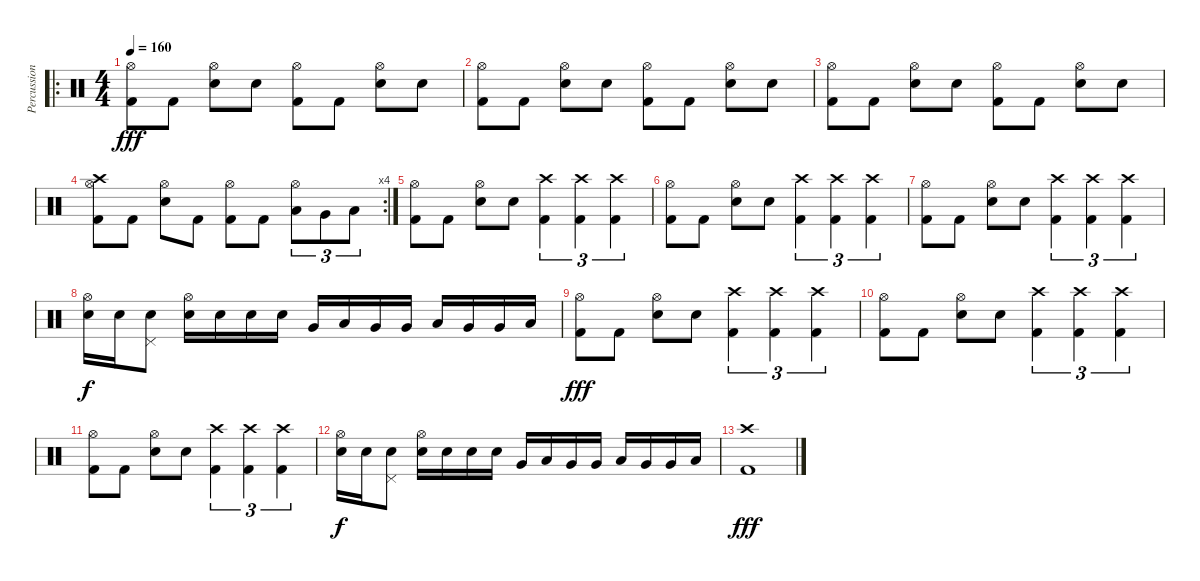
\track ("Percussion" "Percussion") {instrument percussion}
\staff {score}
\articulation defaults
\ro
\ts (4 4)
\tempo 160
\clef neutral
\ks c
("Kick (hit) 2" "Hi-Hat (open)").8{dy fff} "Kick (hit) 2".8 ("Snare (hit) 2" "Hi-Hat (open)").8 "Snare (hit) 2".8 ("Kick (hit) 2" "Hi-Hat (open)").8 "Kick (hit) 2".8 ("Snare (hit) 2" "Hi-Hat (open)").8 "Snare (hit) 2".8 |
("Kick (hit) 2" "Hi-Hat (open)").8 "Kick (hit) 2".8 ("Snare (hit) 2" "Hi-Hat (open)").8 "Snare (hit) 2".8 ("Kick (hit) 2" "Hi-Hat (open)").8 "Kick (hit) 2".8 ("Snare (hit) 2" "Hi-Hat (open)").8 "Snare (hit) 2".8 |
("Kick (hit) 2" "Hi-Hat (open)").8 "Kick (hit) 2".8 ("Snare (hit) 2" "Hi-Hat (open)").8 "Snare (hit) 2".8 ("Kick (hit) 2" "Hi-Hat (open)").8 "Kick (hit) 2".8 ("Snare (hit) 2" "Hi-Hat (open)").8 "Snare (hit) 2".8 |
\rc 4
("Kick (hit) 2" "Hi-Hat (open)" "Crash high (hit)").8 "Kick (hit) 2".8 ("Snare (hit) 2" "Hi-Hat (open)").8 "Kick (hit) 2".8 ("Kick (hit) 2" "Hi-Hat (open)").8 "Kick (hit) 2".8 ("Low Tom (hit)" "Hi-Hat (open)").8{tu (3 2)} "Very Low Tom (hit)".8{tu (3 2)} "Low Floor Tom (hit)".8{tu (3 2)} |
("Kick (hit) 2" "Hi-Hat (open)").8 "Kick (hit) 2".8 ("Snare (hit) 2" "Hi-Hat (open)").8 "Snare (hit) 2".8 ("Kick (hit) 2" "Crash high (hit)").4{tu (3 2)} ("Kick (hit) 2" "Crash high (hit)").4{tu (3 2)} ("Kick (hit) 2" "Crash high (hit)").4{tu (3 2)} |
("Kick (hit) 2" "Hi-Hat (open)").8 "Kick (hit) 2".8 ("Snare (hit) 2" "Hi-Hat (open)").8 "Snare (hit) 2".8 ("Kick (hit) 2" "Crash high (hit)").4{tu (3 2)} ("Kick (hit) 2" "Crash high (hit)").4{tu (3 2)} ("Kick (hit) 2" "Crash high (hit)").4{tu (3 2)} |
("Kick (hit) 2" "Hi-Hat (open)").8 "Kick (hit) 2".8 ("Snare (hit) 2" "Hi-Hat (open)").8 "Snare (hit) 2".8 ("Kick (hit) 2" "Crash high (hit)").4{tu (3 2)} ("Kick (hit) 2" "Crash high (hit)").4{tu (3 2)} ("Kick (hit) 2" "Crash high (hit)").4{tu (3 2)} |
("Hi-Hat (open)" "Electric Snare (hit)").16{dy f} "Electric Snare (hit)".16 ("Pedal Hi-Hat (hit)" "Electric Snare (hit)").8 ("Hi-Hat (open)" "Electric Snare (hit)").16 "Electric Snare (hit)".16 "Electric Snare (hit)".16 "Electric Snare (hit)".16 "Very Low Tom (hit)".16 "Low Tom (hit)".16 "Very Low Tom (hit)".16 "Very Low Tom (hit)".16 "Low Tom (hit)".16 "Very Low Tom (hit)".16 "Very Low Tom (hit)".16 "Low Tom (hit)".16 |
("Kick (hit) 2" "Hi-Hat (open)").8{dy fff} "Kick (hit) 2".8 ("Snare (hit) 2" "Hi-Hat (open)").8 "Snare (hit) 2".8 ("Kick (hit) 2" "Crash high (hit)").4{tu (3 2)} ("Kick (hit) 2" "Crash high (hit)").4{tu (3 2)} ("Kick (hit) 2" "Crash high (hit)").4{tu (3 2)} |
("Kick (hit) 2" "Hi-Hat (open)").8 "Kick (hit) 2".8 ("Snare (hit) 2" "Hi-Hat (open)").8 "Snare (hit) 2".8 ("Kick (hit) 2" "Crash high (hit)").4{tu (3 2)} ("Kick (hit) 2" "Crash high (hit)").4{tu (3 2)} ("Kick (hit) 2" "Crash high (hit)").4{tu (3 2)} |
("Kick (hit) 2" "Hi-Hat (open)").8 "Kick (hit) 2".8 ("Snare (hit) 2" "Hi-Hat (open)").8 "Snare (hit) 2".8 ("Kick (hit) 2" "Crash high (hit)").4{tu (3 2)} ("Kick (hit) 2" "Crash high (hit)").4{tu (3 2)} ("Kick (hit) 2" "Crash high (hit)").4{tu (3 2)} |
("Hi-Hat (open)" "Electric Snare (hit)").16{dy f} "Electric Snare (hit)".16 ("Pedal Hi-Hat (hit)" "Electric Snare (hit)").8 ("Hi-Hat (open)" "Electric Snare (hit)").16 "Electric Snare (hit)".16 "Electric Snare (hit)".16 "Electric Snare (hit)".16 "Very Low Tom (hit)".16 "Low Tom (hit)".16 "Very Low Tom (hit)".16 "Very Low Tom (hit)".16 "Low Tom (hit)".16 "Very Low Tom (hit)".16 "Very Low Tom (hit)".16 "Low Tom (hit)".16 |
("Kick (hit) 2" "Crash high (hit)").1{dy fff}
